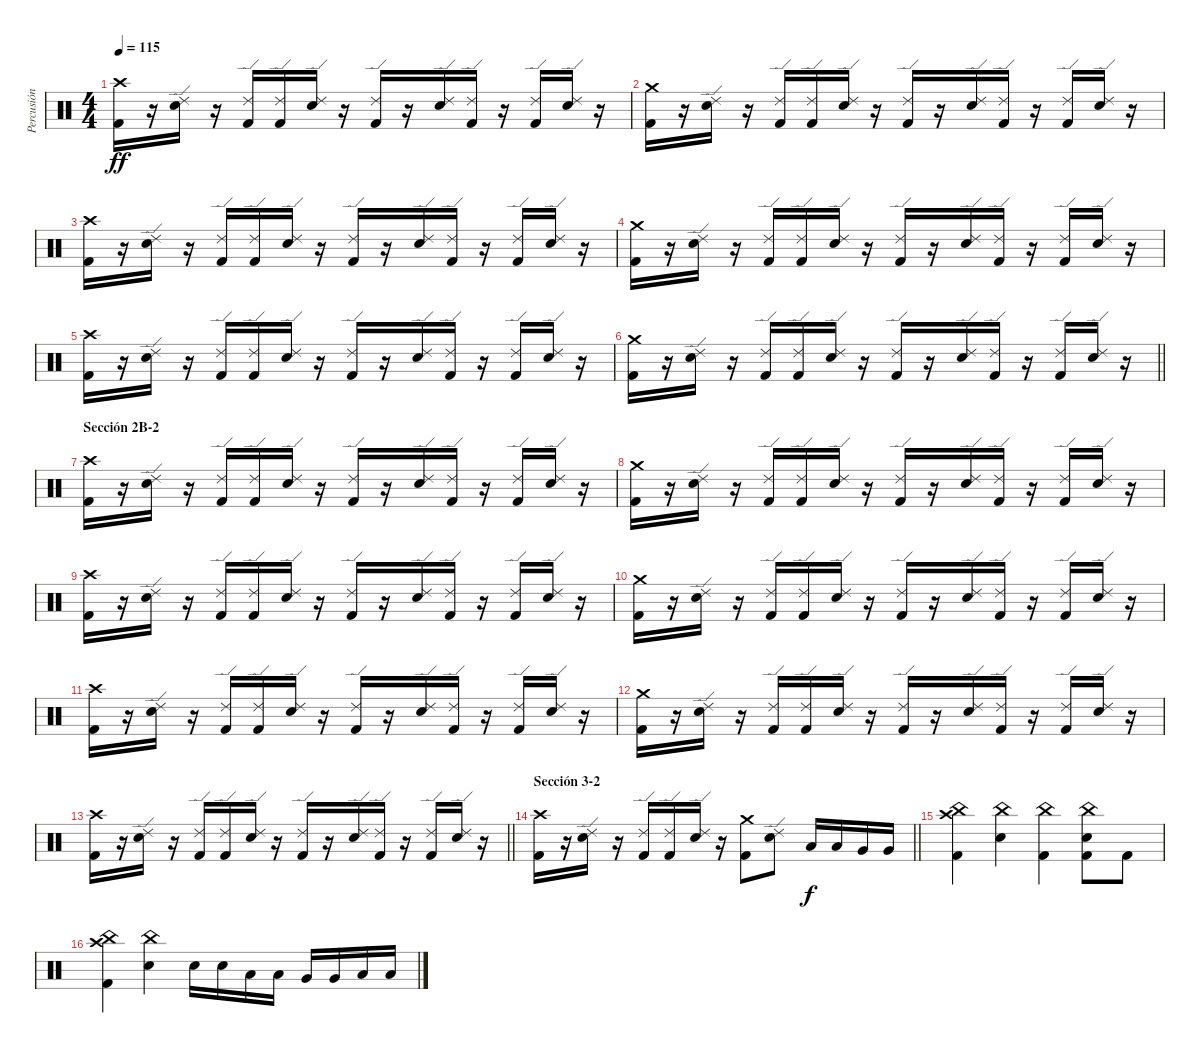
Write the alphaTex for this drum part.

\track ("Percusión" "Percusión") {instrument percussion}
\staff {score}
\articulation defaults
\ts (4 4)
\tempo 115
\clef neutral
\ks c
("Crash high (hit)" "Kick (hit) 2").16{dy ff} r.16 ("Ride (edge) 2" "Snare (hit) 2").16 r.16 ("Ride (edge) 2" "Kick (hit) 2").16 ("Ride (edge) 2" "Kick (hit) 2").16 ("Ride (edge) 2" "Snare (hit) 2").16 r.16 ("Ride (edge) 2" "Kick (hit) 2").16 r.16 ("Ride (edge) 2" "Snare (hit) 2").16 ("Ride (edge) 2" "Kick (hit) 2").16 r.16 ("Ride (edge) 2" "Kick (hit) 2").16 ("Ride (edge) 2" "Snare (hit) 2").16 r.16 |
("Crash medium (hit)" "Kick (hit) 2").16 r.16 ("Ride (edge) 2" "Snare (hit) 2").16 r.16 ("Ride (edge) 2" "Kick (hit) 2").16 ("Ride (edge) 2" "Kick (hit) 2").16 ("Ride (edge) 2" "Snare (hit) 2").16 r.16 ("Ride (edge) 2" "Kick (hit) 2").16 r.16 ("Ride (edge) 2" "Snare (hit) 2").16 ("Ride (edge) 2" "Kick (hit) 2").16 r.16 ("Ride (edge) 2" "Kick (hit) 2").16 ("Ride (edge) 2" "Snare (hit) 2").16 r.16 |
("Crash high (hit)" "Kick (hit) 2").16 r.16 ("Ride (edge) 2" "Snare (hit) 2").16 r.16 ("Ride (edge) 2" "Kick (hit) 2").16 ("Ride (edge) 2" "Kick (hit) 2").16 ("Ride (edge) 2" "Snare (hit) 2").16 r.16 ("Ride (edge) 2" "Kick (hit) 2").16 r.16 ("Ride (edge) 2" "Snare (hit) 2").16 ("Ride (edge) 2" "Kick (hit) 2").16 r.16 ("Ride (edge) 2" "Kick (hit) 2").16 ("Ride (edge) 2" "Snare (hit) 2").16 r.16 |
("Crash medium (hit)" "Kick (hit) 2").16 r.16 ("Ride (edge) 2" "Snare (hit) 2").16 r.16 ("Ride (edge) 2" "Kick (hit) 2").16 ("Ride (edge) 2" "Kick (hit) 2").16 ("Ride (edge) 2" "Snare (hit) 2").16 r.16 ("Ride (edge) 2" "Kick (hit) 2").16 r.16 ("Ride (edge) 2" "Snare (hit) 2").16 ("Ride (edge) 2" "Kick (hit) 2").16 r.16 ("Ride (edge) 2" "Kick (hit) 2").16 ("Ride (edge) 2" "Snare (hit) 2").16 r.16 |
("Crash high (hit)" "Kick (hit) 2").16 r.16 ("Ride (edge) 2" "Snare (hit) 2").16 r.16 ("Ride (edge) 2" "Kick (hit) 2").16 ("Ride (edge) 2" "Kick (hit) 2").16 ("Ride (edge) 2" "Snare (hit) 2").16 r.16 ("Ride (edge) 2" "Kick (hit) 2").16 r.16 ("Ride (edge) 2" "Snare (hit) 2").16 ("Ride (edge) 2" "Kick (hit) 2").16 r.16 ("Ride (edge) 2" "Kick (hit) 2").16 ("Ride (edge) 2" "Snare (hit) 2").16 r.16 |
\barLineRight lightlight
("Crash medium (hit)" "Kick (hit) 2").16 r.16 ("Ride (edge) 2" "Snare (hit) 2").16 r.16 ("Ride (edge) 2" "Kick (hit) 2").16 ("Ride (edge) 2" "Kick (hit) 2").16 ("Ride (edge) 2" "Snare (hit) 2").16 r.16 ("Ride (edge) 2" "Kick (hit) 2").16 r.16 ("Ride (edge) 2" "Snare (hit) 2").16 ("Ride (edge) 2" "Kick (hit) 2").16 r.16 ("Ride (edge) 2" "Kick (hit) 2").16 ("Ride (edge) 2" "Snare (hit) 2").16 r.16 |
\section ("" "Sección 2B-2")
("Crash high (hit)" "Kick (hit) 2").16 r.16 ("Ride (edge) 2" "Snare (hit) 2").16 r.16 ("Ride (edge) 2" "Kick (hit) 2").16 ("Ride (edge) 2" "Kick (hit) 2").16 ("Ride (edge) 2" "Snare (hit) 2").16 r.16 ("Ride (edge) 2" "Kick (hit) 2").16 r.16 ("Ride (edge) 2" "Snare (hit) 2").16 ("Ride (edge) 2" "Kick (hit) 2").16 r.16 ("Ride (edge) 2" "Kick (hit) 2").16 ("Ride (edge) 2" "Snare (hit) 2").16 r.16 |
("Crash medium (hit)" "Kick (hit) 2").16 r.16 ("Ride (edge) 2" "Snare (hit) 2").16 r.16 ("Ride (edge) 2" "Kick (hit) 2").16 ("Ride (edge) 2" "Kick (hit) 2").16 ("Ride (edge) 2" "Snare (hit) 2").16 r.16 ("Ride (edge) 2" "Kick (hit) 2").16 r.16 ("Ride (edge) 2" "Snare (hit) 2").16 ("Ride (edge) 2" "Kick (hit) 2").16 r.16 ("Ride (edge) 2" "Kick (hit) 2").16 ("Ride (edge) 2" "Snare (hit) 2").16 r.16 |
("Crash high (hit)" "Kick (hit) 2").16 r.16 ("Ride (edge) 2" "Snare (hit) 2").16 r.16 ("Ride (edge) 2" "Kick (hit) 2").16 ("Ride (edge) 2" "Kick (hit) 2").16 ("Ride (edge) 2" "Snare (hit) 2").16 r.16 ("Ride (edge) 2" "Kick (hit) 2").16 r.16 ("Ride (edge) 2" "Snare (hit) 2").16 ("Ride (edge) 2" "Kick (hit) 2").16 r.16 ("Ride (edge) 2" "Kick (hit) 2").16 ("Ride (edge) 2" "Snare (hit) 2").16 r.16 |
("Crash medium (hit)" "Kick (hit) 2").16 r.16 ("Ride (edge) 2" "Snare (hit) 2").16 r.16 ("Ride (edge) 2" "Kick (hit) 2").16 ("Ride (edge) 2" "Kick (hit) 2").16 ("Ride (edge) 2" "Snare (hit) 2").16 r.16 ("Ride (edge) 2" "Kick (hit) 2").16 r.16 ("Ride (edge) 2" "Snare (hit) 2").16 ("Ride (edge) 2" "Kick (hit) 2").16 r.16 ("Ride (edge) 2" "Kick (hit) 2").16 ("Ride (edge) 2" "Snare (hit) 2").16 r.16 |
("Crash high (hit)" "Kick (hit) 2").16 r.16 ("Ride (edge) 2" "Snare (hit) 2").16 r.16 ("Ride (edge) 2" "Kick (hit) 2").16 ("Ride (edge) 2" "Kick (hit) 2").16 ("Ride (edge) 2" "Snare (hit) 2").16 r.16 ("Ride (edge) 2" "Kick (hit) 2").16 r.16 ("Ride (edge) 2" "Snare (hit) 2").16 ("Ride (edge) 2" "Kick (hit) 2").16 r.16 ("Ride (edge) 2" "Kick (hit) 2").16 ("Ride (edge) 2" "Snare (hit) 2").16 r.16 |
("Crash medium (hit)" "Kick (hit) 2").16 r.16 ("Ride (edge) 2" "Snare (hit) 2").16 r.16 ("Ride (edge) 2" "Kick (hit) 2").16 ("Ride (edge) 2" "Kick (hit) 2").16 ("Ride (edge) 2" "Snare (hit) 2").16 r.16 ("Ride (edge) 2" "Kick (hit) 2").16 r.16 ("Ride (edge) 2" "Snare (hit) 2").16 ("Ride (edge) 2" "Kick (hit) 2").16 r.16 ("Ride (edge) 2" "Kick (hit) 2").16 ("Ride (edge) 2" "Snare (hit) 2").16 r.16 |
\barLineRight lightlight
("Crash high (hit)" "Kick (hit) 2").16 r.16 ("Ride (edge) 2" "Snare (hit) 2").16 r.16 ("Ride (edge) 2" "Kick (hit) 2").16 ("Ride (edge) 2" "Kick (hit) 2").16 ("Ride (edge) 2" "Snare (hit) 2").16 r.16 ("Ride (edge) 2" "Kick (hit) 2").16 r.16 ("Ride (edge) 2" "Snare (hit) 2").16 ("Ride (edge) 2" "Kick (hit) 2").16 r.16 ("Ride (edge) 2" "Kick (hit) 2").16 ("Ride (edge) 2" "Snare (hit) 2").16 r.16 |
\section ("" "Sección 3-2")
\barLineRight lightlight
("Crash high (hit)" "Kick (hit) 2").16 r.16 ("Ride (edge) 2" "Snare (hit) 2").16 r.16 ("Ride (edge) 2" "Kick (hit) 2").16 ("Ride (edge) 2" "Kick (hit) 2").16 ("Ride (edge) 2" "Snare (hit) 2").16 r.16 ("Crash medium (hit)" "Kick (hit) 2").8 ("Ride (edge) 2" "Snare (hit) 2").8 "Low Tom (hit)".16{dy f} "Low Tom (hit)".16 "Very Low Tom (hit)".16 "Very Low Tom (hit)".16 |
("China (hit)" "Crash high (hit)" "Kick (hit) 2").4 ("China (hit)" "Snare (hit) 2").4 ("China (hit)" "Kick (hit) 2").4 ("China (hit)" "Snare (hit) 2" "Kick (hit) 2").8 "Kick (hit) 2".8 |
("China (hit)" "Crash high (hit)" "Kick (hit) 2").4 ("China (hit)" "Snare (hit) 2").4 "Snare (hit) 2".16 "Snare (hit) 2".16 "Low Tom (hit)".16 "Low Tom (hit)".16 "Very Low Tom (hit)".16 "Very Low Tom (hit)".16 "Low Floor Tom (hit)".16 "Low Floor Tom (hit)".16
